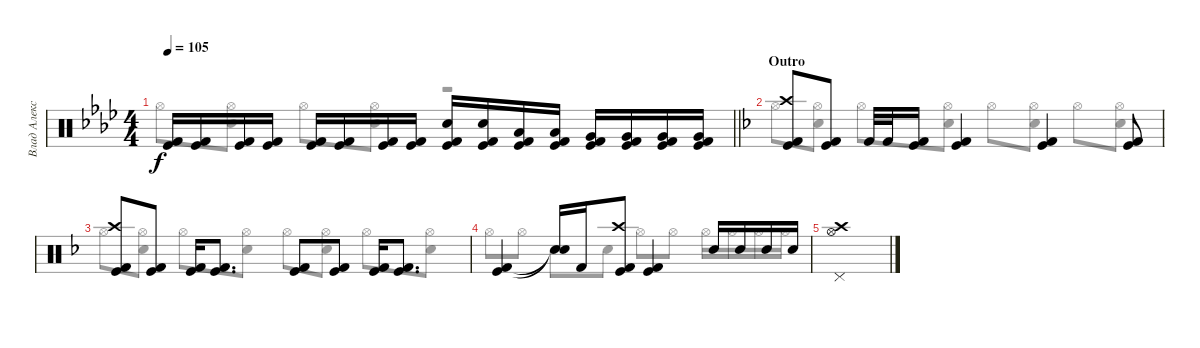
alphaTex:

\track ("Влад Алексеенко" "Влад Алекс") {instrument percussion}
\staff {score}
\articulation defaults
\voice
\ts (4 4)
\tempo 105
\clef neutral
\barLineRight lightlight
\ks ab
("Kick (hit) 2" "Kick (hit)").16{dy f} ("Kick (hit) 2" "Kick (hit)").16 ("Kick (hit) 2" "Kick (hit)").16 ("Kick (hit) 2" "Kick (hit)").16 ("Kick (hit) 2" "Kick (hit)").16 ("Kick (hit) 2" "Kick (hit)").16 ("Kick (hit) 2" "Kick (hit)").16 ("Kick (hit) 2" "Kick (hit)").16 ("Kick (hit) 2" "Kick (hit)" "Snare (hit) 2").16 ("Kick (hit) 2" "Kick (hit)" "Snare (hit) 2").16 ("Kick (hit) 2" "Kick (hit)" "Low Tom (hit)").16 ("Kick (hit) 2" "Kick (hit)" "Low Tom (hit)").16 ("Kick (hit) 2" "Kick (hit)" "Very Low Tom (hit)").16 ("Kick (hit) 2" "Kick (hit)" "Very Low Tom (hit)").16 ("Kick (hit) 2" "Kick (hit)" "Very Low Tom (hit)").16 ("Kick (hit) 2" "Kick (hit)" "Very Low Tom (hit)").16 |
\section ("" "Outro")
\ks f
("Kick (hit) 2" "Kick (hit)" "Crash high (hit)").8 ("Kick (hit) 2" "Kick (hit)").8 "Kick (hit) 2".32 "Kick (hit) 2".32 ("Kick (hit) 2" "Kick (hit)").16 ("Kick (hit) 2" "Kick (hit)").4 ("Kick (hit) 2" "Kick (hit)").4 ("Kick (hit) 2" "Kick (hit)").8 |
("Kick (hit) 2" "Kick (hit)" "Crash high (hit)").8 ("Kick (hit) 2" "Kick (hit)").8 ("Kick (hit) 2" "Kick (hit)").16 ("Kick (hit) 2" "Kick (hit)").8{d} ("Kick (hit) 2" "Kick (hit)").8 ("Kick (hit) 2" "Kick (hit)").8 ("Kick (hit) 2" "Kick (hit)").16 ("Kick (hit) 2" "Kick (hit)").8{d} |
("Kick (hit) 2" "Kick (hit)").4 ("Snare (hit)"{t} "Snare (hit)"{t}).16 "Kick (hit) 2".16 ("Kick (hit) 2" "Kick (hit)" "Crash high (hit)").8 ("Kick (hit) 2" "Kick (hit)").4 "Snare (hit) 2".16 "Snare (hit) 2".16 "Snare (hit) 2".16 "Snare (hit) 2".16 |
("Hi-Hat (open)" "Pedal Hi-Hat (hit)" "Crash high (hit)").1
\voice
\clef neutral
\ottava regular
\simile none
\barLineRight lightlight
\ks ab "Hi-Hat (open)".8{dy f}
("Hi-Hat (open)" "Snare (hit) 2").8 "Hi-Hat (open)".8 ("Hi-Hat (open)" "Snare (hit) 2").8 r.2 |
\ks f "Hi-Hat (open)".8
("Hi-Hat (open)" "Snare (hit) 2").8 "Hi-Hat (open)".8 ("Hi-Hat (open)" "Snare (hit) 2").8 "Hi-Hat (open)".8 ("Hi-Hat (open)" "Snare (hit) 2").8 "Hi-Hat (open)".8 ("Hi-Hat (open)" "Snare (hit) 2").8 |
"Hi-Hat (open)".8 ("Hi-Hat (open)" "Snare (hit) 2").8 "Hi-Hat (open)".8 ("Hi-Hat (open)" "Snare (hit) 2").8 "Hi-Hat (open)".8 ("Hi-Hat (open)" "Snare (hit) 2").8 "Hi-Hat (open)".8 ("Hi-Hat (open)" "Snare (hit) 2").8 |
"Hi-Hat (open)".8 "Hi-Hat (open)".8 "Snare (hit) 2".8 "Snare (hit) 2".8 "Hi-Hat (open)".8 "Hi-Hat (open)".8 "Hi-Hat (open)".16 "Hi-Hat (open)".16 "Hi-Hat (open)".16 "Hi-Hat (open)".16 |
